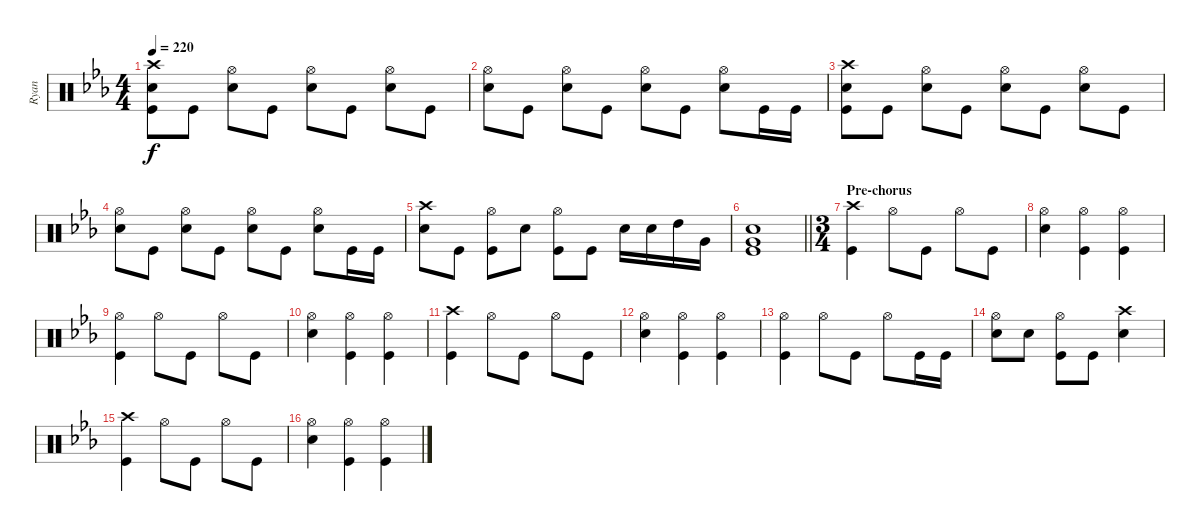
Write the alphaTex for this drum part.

\track ("Ryan" "Ryan") {instrument percussion}
\staff {score}
\articulation defaults
\ts (4 4)
\tempo 220
\clef neutral
\ks cminor
("Crash high (hit)" "Kick (hit)" "Snare (hit) 2").8{dy f} "Kick (hit)".8 ("Snare (hit) 2" "Hi-Hat (open)").8 "Kick (hit)".8 ("Snare (hit) 2" "Hi-Hat (open)").8 "Kick (hit)".8 ("Snare (hit) 2" "Hi-Hat (open)").8 "Kick (hit)".8 |
("Hi-Hat (open)" "Snare (hit) 2").8 "Kick (hit)".8 ("Snare (hit) 2" "Hi-Hat (open)").8 "Kick (hit)".8 ("Snare (hit) 2" "Hi-Hat (open)").8 "Kick (hit)".8 ("Hi-Hat (open)" "Snare (hit) 2").8 "Kick (hit)".16 "Kick (hit)".16 |
("Crash high (hit)" "Kick (hit)" "Snare (hit) 2").8 "Kick (hit)".8 ("Snare (hit) 2" "Hi-Hat (open)").8 "Kick (hit)".8 ("Snare (hit) 2" "Hi-Hat (open)").8 "Kick (hit)".8 ("Snare (hit) 2" "Hi-Hat (open)").8 "Kick (hit)".8 |
("Hi-Hat (open)" "Snare (hit) 2").8 "Kick (hit)".8 ("Snare (hit) 2" "Hi-Hat (open)").8 "Kick (hit)".8 ("Snare (hit) 2" "Hi-Hat (open)").8 "Kick (hit)".8 ("Hi-Hat (open)" "Snare (hit) 2").8 "Kick (hit)".16 "Kick (hit)".16 |
("Snare (hit) 2" "Crash high (hit)").8 "Kick (hit)".8 ("Hi-Hat (open)" "Kick (hit)").8 "Snare (hit) 2".8 ("Kick (hit)" "Hi-Hat (open)").8 "Kick (hit)".8 "Snare (hit) 2".16 "Snare (hit) 2".16 "High Tom (hit)".16 "Very Low Tom (hit)".16 |
\barLineRight lightlight
("Kick (hit)" "Snare (hit) 2" "Very Low Tom (hit)").1 |
\ts (3 4)
\section ("" "Pre-chorus")
("Crash high (hit)" "Kick (hit)").4 "Hi-Hat (open)".8 "Kick (hit)".8 "Hi-Hat (open)".8 "Kick (hit)".8 |
("Snare (hit) 2" "Hi-Hat (open)").4 ("Kick (hit)" "Hi-Hat (open)").4 ("Kick (hit)" "Hi-Hat (open)").4 |
("Kick (hit)" "Hi-Hat (open)").4 "Hi-Hat (open)".8 "Kick (hit)".8 "Hi-Hat (open)".8 "Kick (hit)".8 |
("Snare (hit) 2" "Hi-Hat (open)").4 ("Kick (hit)" "Hi-Hat (open)").4 ("Kick (hit)" "Hi-Hat (open)").4 |
("Crash high (hit)" "Kick (hit)").4 "Hi-Hat (open)".8 "Kick (hit)".8 "Hi-Hat (open)".8 "Kick (hit)".8 |
("Snare (hit) 2" "Hi-Hat (open)").4 ("Kick (hit)" "Hi-Hat (open)").4 ("Kick (hit)" "Hi-Hat (open)").4 |
("Kick (hit)" "Hi-Hat (open)").4 "Hi-Hat (open)".8 "Kick (hit)".8 "Hi-Hat (open)".8 "Kick (hit)".16 "Kick (hit)".16 |
("Hi-Hat (open)" "Snare (hit) 2").8 "Snare (hit) 2".8 ("Kick (hit)" "Hi-Hat (open)").8 "Kick (hit)".8 ("Crash high (hit)" "Snare (hit) 2").4 |
("Crash high (hit)" "Kick (hit)").4 "Hi-Hat (open)".8 "Kick (hit)".8 "Hi-Hat (open)".8 "Kick (hit)".8 |
("Snare (hit) 2" "Hi-Hat (open)").4 ("Kick (hit)" "Hi-Hat (open)").4 ("Kick (hit)" "Hi-Hat (open)").4
